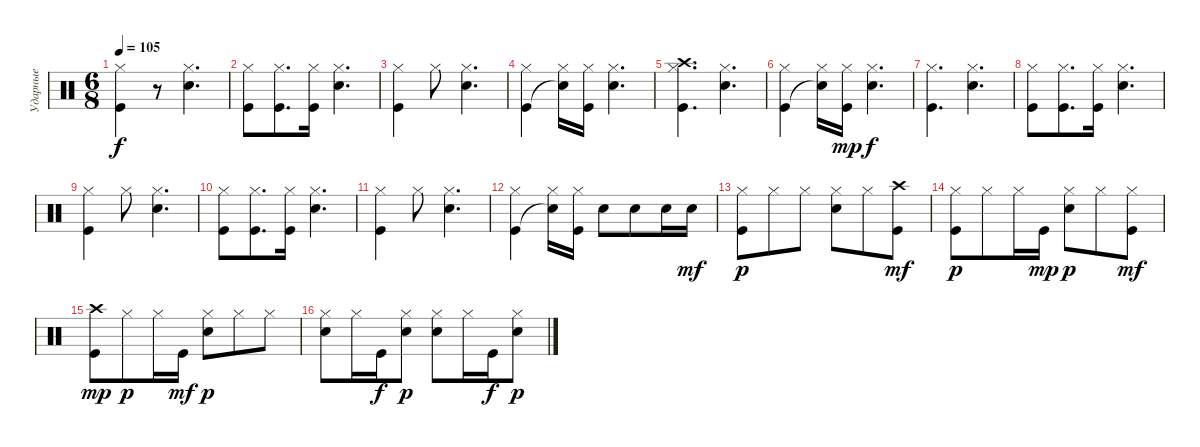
\track ("Ударные" "Ударные") {instrument percussion}
\staff {score}
\articulation defaults
\ts (6 8)
\tempo 105
\clef neutral
\ks c
("Kick (hit)" "Hi-Hat (closed)").4{dy f} r.8 ("Electric Snare (hit)" "Hi-Hat (closed)").4{d} |
("Kick (hit)" "Hi-Hat (closed)").8 ("Kick (hit)" "Hi-Hat (closed)").8{d} ("Kick (hit)" "Hi-Hat (closed)").16 ("Electric Snare (hit)" "Hi-Hat (closed)").4{d} |
("Kick (hit)" "Hi-Hat (closed)").4 "Hi-Hat (closed)".8 ("Electric Snare (hit)" "Hi-Hat (closed)").4{d} |
("Kick (hit)" "Hi-Hat (closed)").4 ("Snare (hit)"{t} "Hi-Hat (closed)").16 ("Kick (hit)" "Hi-Hat (closed)").16 ("Electric Snare (hit)" "Hi-Hat (closed)").4{d} |
("Crash high (hit)" "Kick (hit)" "Hi-Hat (closed)").4{d} ("Electric Snare (hit)" "Hi-Hat (closed)").4{d} |
("Kick (hit)" "Hi-Hat (closed)").4 ("Snare (hit)"{t} "Hi-Hat (closed)").16 ("Kick (hit)" "Hi-Hat (closed)").16{dy mp} ("Electric Snare (hit)" "Hi-Hat (closed)").4{d dy f} |
("Kick (hit)" "Hi-Hat (closed)").4{d} ("Electric Snare (hit)" "Hi-Hat (closed)").4{d} |
("Kick (hit)" "Hi-Hat (closed)").8 ("Kick (hit)" "Hi-Hat (closed)").8{d} ("Kick (hit)" "Hi-Hat (closed)").16 ("Electric Snare (hit)" "Hi-Hat (closed)").4{d} |
("Kick (hit)" "Hi-Hat (closed)").4 "Hi-Hat (closed)".8 ("Electric Snare (hit)" "Hi-Hat (closed)").4{d} |
("Kick (hit)" "Hi-Hat (closed)").8 ("Kick (hit)" "Hi-Hat (closed)").8{d} ("Kick (hit)" "Hi-Hat (closed)").16 ("Electric Snare (hit)" "Hi-Hat (closed)").4{d} |
("Kick (hit)" "Hi-Hat (closed)").4 "Hi-Hat (closed)".8 ("Electric Snare (hit)" "Hi-Hat (closed)").4{d} |
("Kick (hit)" "Hi-Hat (closed)").4 ("Snare (hit)"{t} "Hi-Hat (closed)").16 ("Kick (hit)" "Hi-Hat (closed)").16 "Electric Snare (hit)".8 "Electric Snare (hit)".8 "Electric Snare (hit)".16 "Electric Snare (hit)".16{dy mf} |
("Hi-Hat (closed)" "Kick (hit)").8{dy p} "Hi-Hat (closed)".8 "Hi-Hat (closed)".8 ("Hi-Hat (closed)" "Electric Snare (hit)").8 "Hi-Hat (closed)".8 ("Crash high (hit)" "Kick (hit)").8{dy mf} |
("Hi-Hat (closed)" "Kick (hit)").8{dy p} "Hi-Hat (closed)".8 "Hi-Hat (closed)".16 "Kick (hit)".16{dy mp} ("Hi-Hat (closed)" "Electric Snare (hit)").8{dy p} "Hi-Hat (closed)".8 ("Hi-Hat (closed)" "Kick (hit)").8{dy mf} |
("Crash high (hit)" "Kick (hit)").8{dy mp} "Hi-Hat (closed)".8{dy p} "Hi-Hat (closed)".16 "Kick (hit)".16{dy mf} ("Hi-Hat (closed)" "Electric Snare (hit)").8{dy p} "Hi-Hat (closed)".8 "Hi-Hat (closed)".8 |
("Hi-Hat (closed)" "Electric Snare (hit)").8 "Hi-Hat (closed)".16 "Kick (hit)".16{dy f} ("Hi-Hat (closed)" "Electric Snare (hit)").8{dy p} ("Hi-Hat (closed)" "Electric Snare (hit)").8 "Hi-Hat (closed)".16 "Kick (hit)".16{dy f} ("Hi-Hat (closed)" "Electric Snare (hit)").8{dy p}
